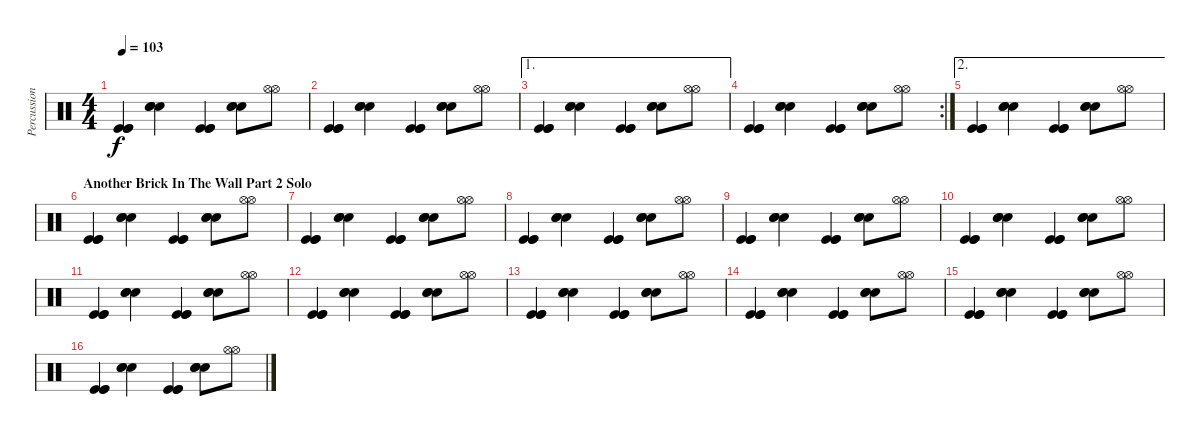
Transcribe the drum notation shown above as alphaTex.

\track ("Percussion (Wall prt. 2)" "Percussion") {instrument percussion}
\staff {score}
\articulation defaults
\ts (4 4)
\tempo 103
\clef neutral
\ks c
("Kick (hit)" "Kick (hit)" "Kick (hit)").4{dy f} ("Snare (hit) 2" "Snare (hit) 2" "Snare (hit) 2").4 ("Kick (hit)" "Kick (hit)" "Kick (hit)").4 ("Snare (hit) 2" "Snare (hit) 2" "Snare (hit) 2").8 ("Hi-Hat (open)" "Hi-Hat (open)").8 |
("Kick (hit)" "Kick (hit)" "Kick (hit)").4 ("Snare (hit) 2" "Snare (hit) 2" "Snare (hit) 2").4 ("Kick (hit)" "Kick (hit)" "Kick (hit)").4 ("Snare (hit) 2" "Snare (hit) 2" "Snare (hit) 2").8 ("Hi-Hat (open)" "Hi-Hat (open)").8 |
\ae 1
("Kick (hit)" "Kick (hit)" "Kick (hit)").4 ("Snare (hit) 2" "Snare (hit) 2" "Snare (hit) 2").4 ("Kick (hit)" "Kick (hit)" "Kick (hit)").4 ("Snare (hit) 2" "Snare (hit) 2" "Snare (hit) 2").8 ("Hi-Hat (open)" "Hi-Hat (open)").8 |
\rc 2
("Kick (hit)" "Kick (hit)" "Kick (hit)").4 ("Snare (hit) 2" "Snare (hit) 2" "Snare (hit) 2").4 ("Kick (hit)" "Kick (hit)" "Kick (hit)").4 ("Snare (hit) 2" "Snare (hit) 2" "Snare (hit) 2").8 ("Hi-Hat (open)" "Hi-Hat (open)").8 |
\ae 2
("Kick (hit)" "Kick (hit)" "Kick (hit)").4 ("Snare (hit) 2" "Snare (hit) 2" "Snare (hit) 2").4 ("Kick (hit)" "Kick (hit)" "Kick (hit)").4 ("Snare (hit) 2" "Snare (hit) 2" "Snare (hit) 2").8 ("Hi-Hat (open)" "Hi-Hat (open)").8 |
\section ("" "Another Brick In The Wall Part 2 Solo")
("Kick (hit)" "Kick (hit)" "Kick (hit)").4 ("Snare (hit) 2" "Snare (hit) 2" "Snare (hit) 2").4 ("Kick (hit)" "Kick (hit)" "Kick (hit)").4 ("Snare (hit) 2" "Snare (hit) 2" "Snare (hit) 2").8 ("Hi-Hat (open)" "Hi-Hat (open)").8 |
("Kick (hit)" "Kick (hit)" "Kick (hit)").4 ("Snare (hit) 2" "Snare (hit) 2" "Snare (hit) 2").4 ("Kick (hit)" "Kick (hit)" "Kick (hit)").4 ("Snare (hit) 2" "Snare (hit) 2" "Snare (hit) 2").8 ("Hi-Hat (open)" "Hi-Hat (open)").8 |
("Kick (hit)" "Kick (hit)" "Kick (hit)").4 ("Snare (hit) 2" "Snare (hit) 2" "Snare (hit) 2").4 ("Kick (hit)" "Kick (hit)" "Kick (hit)").4 ("Snare (hit) 2" "Snare (hit) 2" "Snare (hit) 2").8 ("Hi-Hat (open)" "Hi-Hat (open)").8 |
("Kick (hit)" "Kick (hit)" "Kick (hit)").4 ("Snare (hit) 2" "Snare (hit) 2" "Snare (hit) 2").4 ("Kick (hit)" "Kick (hit)" "Kick (hit)").4 ("Snare (hit) 2" "Snare (hit) 2" "Snare (hit) 2").8 ("Hi-Hat (open)" "Hi-Hat (open)").8 |
("Kick (hit)" "Kick (hit)" "Kick (hit)").4 ("Snare (hit) 2" "Snare (hit) 2" "Snare (hit) 2").4 ("Kick (hit)" "Kick (hit)" "Kick (hit)").4 ("Snare (hit) 2" "Snare (hit) 2" "Snare (hit) 2").8 ("Hi-Hat (open)" "Hi-Hat (open)").8 |
("Kick (hit)" "Kick (hit)" "Kick (hit)").4 ("Snare (hit) 2" "Snare (hit) 2" "Snare (hit) 2").4 ("Kick (hit)" "Kick (hit)" "Kick (hit)").4 ("Snare (hit) 2" "Snare (hit) 2" "Snare (hit) 2").8 ("Hi-Hat (open)" "Hi-Hat (open)").8 |
("Kick (hit)" "Kick (hit)" "Kick (hit)").4 ("Snare (hit) 2" "Snare (hit) 2" "Snare (hit) 2").4 ("Kick (hit)" "Kick (hit)" "Kick (hit)").4 ("Snare (hit) 2" "Snare (hit) 2" "Snare (hit) 2").8 ("Hi-Hat (open)" "Hi-Hat (open)").8 |
("Kick (hit)" "Kick (hit)" "Kick (hit)").4 ("Snare (hit) 2" "Snare (hit) 2" "Snare (hit) 2").4 ("Kick (hit)" "Kick (hit)" "Kick (hit)").4 ("Snare (hit) 2" "Snare (hit) 2" "Snare (hit) 2").8 ("Hi-Hat (open)" "Hi-Hat (open)").8 |
("Kick (hit)" "Kick (hit)" "Kick (hit)").4 ("Snare (hit) 2" "Snare (hit) 2" "Snare (hit) 2").4 ("Kick (hit)" "Kick (hit)" "Kick (hit)").4 ("Snare (hit) 2" "Snare (hit) 2" "Snare (hit) 2").8 ("Hi-Hat (open)" "Hi-Hat (open)").8 |
("Kick (hit)" "Kick (hit)" "Kick (hit)").4 ("Snare (hit) 2" "Snare (hit) 2" "Snare (hit) 2").4 ("Kick (hit)" "Kick (hit)" "Kick (hit)").4 ("Snare (hit) 2" "Snare (hit) 2" "Snare (hit) 2").8 ("Hi-Hat (open)" "Hi-Hat (open)").8 |
("Kick (hit)" "Kick (hit)" "Kick (hit)").4 ("Snare (hit) 2" "Snare (hit) 2" "Snare (hit) 2").4 ("Kick (hit)" "Kick (hit)" "Kick (hit)").4 ("Snare (hit) 2" "Snare (hit) 2" "Snare (hit) 2").8 ("Hi-Hat (open)" "Hi-Hat (open)").8
